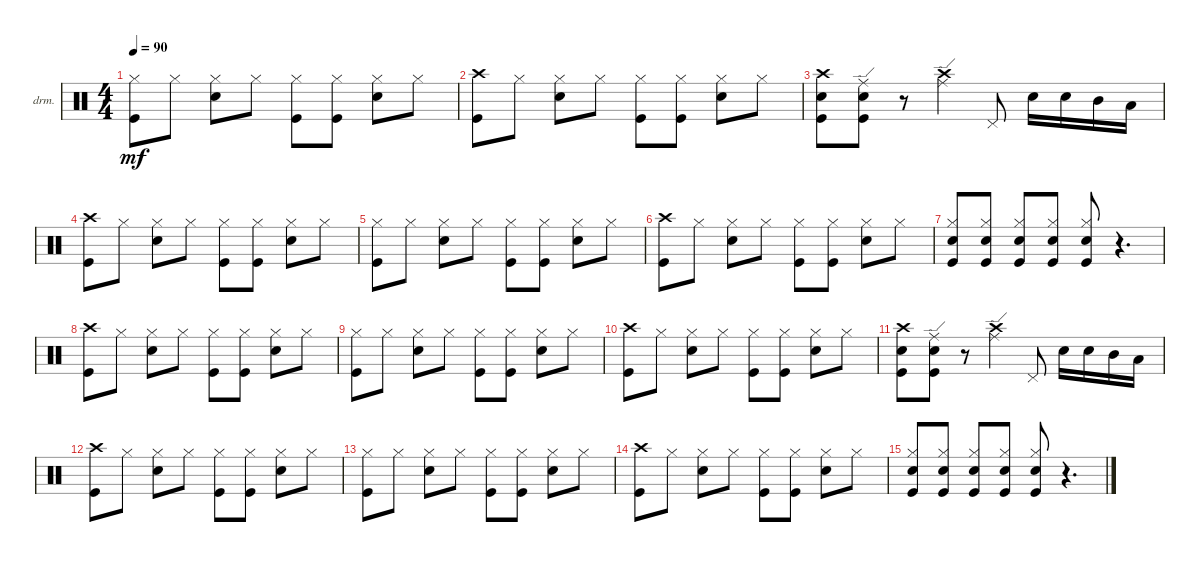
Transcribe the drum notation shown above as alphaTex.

\defaultSystemsLayout 4
\bracketExtendMode groupsimilarinstruments
\useSystemSignSeparator
\firstSystemTrackNameOrientation horizontal
\otherSystemsTrackNameOrientation horizontal
\chordDiagramsInScore
\track ("Drumkit" "drm.") {instrument percussion}
\staff {score}
\articulation defaults
\ts (4 4)
\tempo 90
\clef neutral
\ks c
("Kick (hit)" "Hi-Hat (closed)").8{dy mf} "Hi-Hat (closed)".8 ("Hi-Hat (closed)" "Snare (hit) 2").8 "Hi-Hat (closed)".8 ("Hi-Hat (closed)" "Kick (hit)").8 ("Hi-Hat (closed)" "Kick (hit)").8 ("Hi-Hat (closed)" "Snare (hit) 2").8 "Hi-Hat (closed)".8 |
("Crash high (hit)" "Kick (hit)").8 "Hi-Hat (closed)".8 ("Hi-Hat (closed)" "Snare (hit) 2").8 "Hi-Hat (closed)".8 ("Hi-Hat (closed)" "Kick (hit)").8 ("Hi-Hat (closed)" "Kick (hit)").8 ("Hi-Hat (closed)" "Snare (hit) 2").8 "Hi-Hat (closed)".8 |
("Crash high (hit)" "Kick (hit)" "Snare (hit) 2").8 ("Ride (edge)" "Snare (hit) 2" "Kick (hit)").8 r.8 ("Crash high (hit)" "Ride (edge)").4 "Pedal Hi-Hat (hit)".8 "Snare (hit) 2".16 "Snare (hit) 2".16 "Mid Tom (hit)".16 "Low Tom (hit)".16 |
("Crash high (hit)" "Kick (hit)").8 "Hi-Hat (closed)".8 ("Hi-Hat (closed)" "Snare (hit) 2").8 "Hi-Hat (closed)".8 ("Hi-Hat (closed)" "Kick (hit)").8 ("Hi-Hat (closed)" "Kick (hit)").8 ("Hi-Hat (closed)" "Snare (hit) 2").8 "Hi-Hat (closed)".8 |
("Kick (hit)" "Hi-Hat (closed)").8 "Hi-Hat (closed)".8 ("Hi-Hat (closed)" "Snare (hit) 2").8 "Hi-Hat (closed)".8 ("Hi-Hat (closed)" "Kick (hit)").8 ("Hi-Hat (closed)" "Kick (hit)").8 ("Hi-Hat (closed)" "Snare (hit) 2").8 "Hi-Hat (closed)".8 |
("Crash high (hit)" "Kick (hit)").8 "Hi-Hat (closed)".8 ("Hi-Hat (closed)" "Snare (hit) 2").8 "Hi-Hat (closed)".8 ("Hi-Hat (closed)" "Kick (hit)").8 ("Hi-Hat (closed)" "Kick (hit)").8 ("Hi-Hat (closed)" "Snare (hit) 2").8 "Hi-Hat (closed)".8 |
("Hi-Hat (closed)" "Snare (hit) 2" "Kick (hit)").8 ("Hi-Hat (closed)" "Snare (hit) 2" "Kick (hit)").8 ("Hi-Hat (closed)" "Snare (hit) 2" "Kick (hit)").8 ("Hi-Hat (closed)" "Snare (hit) 2" "Kick (hit)").8 ("Hi-Hat (closed)" "Snare (hit) 2" "Kick (hit)").8 r.4{d} |
("Crash high (hit)" "Kick (hit)").8 "Hi-Hat (closed)".8 ("Hi-Hat (closed)" "Snare (hit) 2").8 "Hi-Hat (closed)".8 ("Hi-Hat (closed)" "Kick (hit)").8 ("Hi-Hat (closed)" "Kick (hit)").8 ("Hi-Hat (closed)" "Snare (hit) 2").8 "Hi-Hat (closed)".8 |
("Kick (hit)" "Hi-Hat (closed)").8 "Hi-Hat (closed)".8 ("Hi-Hat (closed)" "Snare (hit) 2").8 "Hi-Hat (closed)".8 ("Hi-Hat (closed)" "Kick (hit)").8 ("Hi-Hat (closed)" "Kick (hit)").8 ("Hi-Hat (closed)" "Snare (hit) 2").8 "Hi-Hat (closed)".8 |
("Crash high (hit)" "Kick (hit)").8 "Hi-Hat (closed)".8 ("Hi-Hat (closed)" "Snare (hit) 2").8 "Hi-Hat (closed)".8 ("Hi-Hat (closed)" "Kick (hit)").8 ("Hi-Hat (closed)" "Kick (hit)").8 ("Hi-Hat (closed)" "Snare (hit) 2").8 "Hi-Hat (closed)".8 |
("Crash high (hit)" "Kick (hit)" "Snare (hit) 2").8 ("Ride (edge)" "Snare (hit) 2" "Kick (hit)").8 r.8 ("Crash high (hit)" "Ride (edge)").4 "Pedal Hi-Hat (hit)".8 "Snare (hit) 2".16 "Snare (hit) 2".16 "Mid Tom (hit)".16 "Low Tom (hit)".16 |
("Crash high (hit)" "Kick (hit)").8 "Hi-Hat (closed)".8 ("Hi-Hat (closed)" "Snare (hit) 2").8 "Hi-Hat (closed)".8 ("Hi-Hat (closed)" "Kick (hit)").8 ("Hi-Hat (closed)" "Kick (hit)").8 ("Hi-Hat (closed)" "Snare (hit) 2").8 "Hi-Hat (closed)".8 |
("Kick (hit)" "Hi-Hat (closed)").8 "Hi-Hat (closed)".8 ("Hi-Hat (closed)" "Snare (hit) 2").8 "Hi-Hat (closed)".8 ("Hi-Hat (closed)" "Kick (hit)").8 ("Hi-Hat (closed)" "Kick (hit)").8 ("Hi-Hat (closed)" "Snare (hit) 2").8 "Hi-Hat (closed)".8 |
("Crash high (hit)" "Kick (hit)").8 "Hi-Hat (closed)".8 ("Hi-Hat (closed)" "Snare (hit) 2").8 "Hi-Hat (closed)".8 ("Hi-Hat (closed)" "Kick (hit)").8 ("Hi-Hat (closed)" "Kick (hit)").8 ("Hi-Hat (closed)" "Snare (hit) 2").8 "Hi-Hat (closed)".8 |
("Hi-Hat (closed)" "Snare (hit) 2" "Kick (hit)").8 ("Hi-Hat (closed)" "Snare (hit) 2" "Kick (hit)").8 ("Hi-Hat (closed)" "Snare (hit) 2" "Kick (hit)").8 ("Hi-Hat (closed)" "Snare (hit) 2" "Kick (hit)").8 ("Hi-Hat (closed)" "Snare (hit) 2" "Kick (hit)").8 r.4{d}
